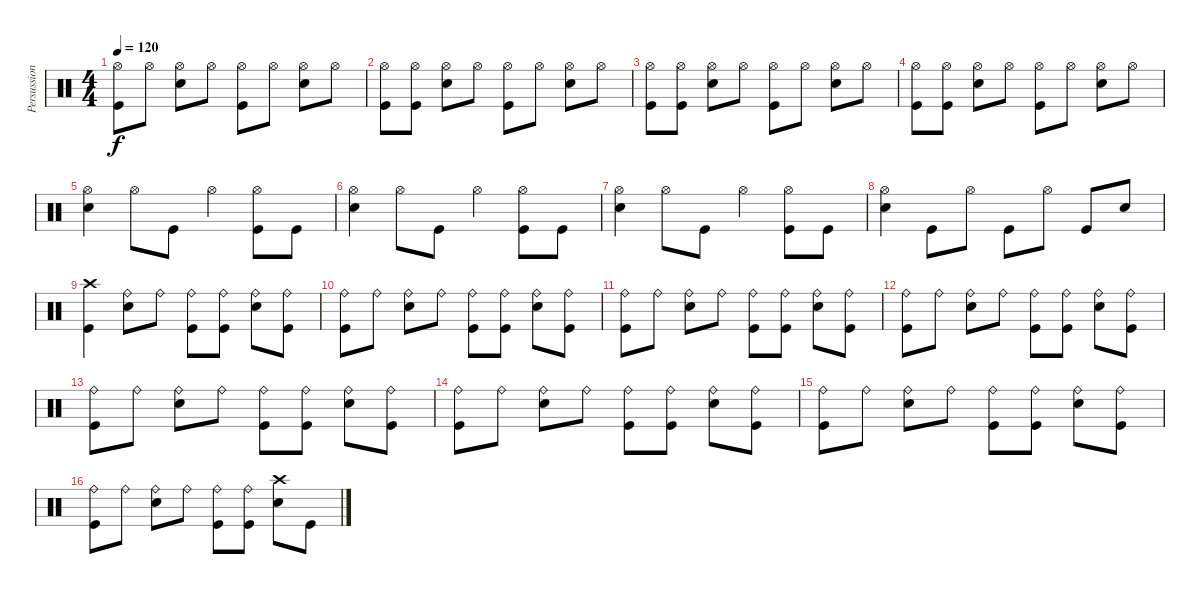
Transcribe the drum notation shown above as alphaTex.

\track ("Persussion" "Persussion") {instrument percussion}
\staff {score}
\articulation defaults
\ts (4 4)
\tempo 120
\clef neutral
\ks c
("Hi-Hat (open)" "Kick (hit)").8{dy f} "Hi-Hat (open)".8 ("Hi-Hat (open)" "Snare (hit) 2").8 "Hi-Hat (open)".8 ("Hi-Hat (open)" "Kick (hit)").8 "Hi-Hat (open)".8 ("Hi-Hat (open)" "Snare (hit) 2").8 "Hi-Hat (open)".8 |
("Hi-Hat (open)" "Kick (hit)").8 ("Hi-Hat (open)" "Kick (hit)").8 ("Hi-Hat (open)" "Snare (hit) 2").8 "Hi-Hat (open)".8 ("Hi-Hat (open)" "Kick (hit)").8 "Hi-Hat (open)".8 ("Hi-Hat (open)" "Snare (hit) 2").8 "Hi-Hat (open)".8 |
("Hi-Hat (open)" "Kick (hit)").8 ("Hi-Hat (open)" "Kick (hit)").8 ("Hi-Hat (open)" "Snare (hit) 2").8 "Hi-Hat (open)".8 ("Hi-Hat (open)" "Kick (hit)").8 "Hi-Hat (open)".8 ("Hi-Hat (open)" "Snare (hit) 2").8 "Hi-Hat (open)".8 |
("Hi-Hat (open)" "Kick (hit)").8 ("Hi-Hat (open)" "Kick (hit)").8 ("Hi-Hat (open)" "Snare (hit) 2").8 "Hi-Hat (open)".8 ("Hi-Hat (open)" "Kick (hit)").8 "Hi-Hat (open)".8 ("Hi-Hat (open)" "Snare (hit) 2").8 "Hi-Hat (open)".8 |
("Hi-Hat (open)" "Snare (hit) 2").4 "Hi-Hat (open)".8 "Kick (hit)".8 "Hi-Hat (open)".4 ("Hi-Hat (open)" "Kick (hit)").8 "Kick (hit)".8 |
("Hi-Hat (open)" "Snare (hit) 2").4 "Hi-Hat (open)".8 "Kick (hit)".8 "Hi-Hat (open)".4 ("Hi-Hat (open)" "Kick (hit)").8 "Kick (hit)".8 |
("Hi-Hat (open)" "Snare (hit) 2").4 "Hi-Hat (open)".8 "Kick (hit)".8 "Hi-Hat (open)".4 ("Hi-Hat (open)" "Kick (hit)").8 "Kick (hit)".8 |
("Hi-Hat (open)" "Snare (hit) 2").4 "Kick (hit)".8 "Hi-Hat (open)".8 "Kick (hit)".8 "Hi-Hat (open)".8 "Kick (hit)".8 "Snare (hit) 2".8 |
("Crash high (hit)" "Kick (hit)").4 ("Ride (bell)" "Snare (hit) 2").8 "Ride (bell)".8 ("Ride (bell)" "Kick (hit)").8 ("Ride (bell)" "Kick (hit)").8 ("Ride (bell)" "Snare (hit) 2").8 ("Ride (bell)" "Kick (hit)").8 |
("Ride (bell)" "Kick (hit)").8 "Ride (bell)".8 ("Ride (bell)" "Snare (hit) 2").8 "Ride (bell)".8 ("Ride (bell)" "Kick (hit)").8 ("Ride (bell)" "Kick (hit)").8 ("Ride (bell)" "Snare (hit) 2").8 ("Ride (bell)" "Kick (hit)").8 |
("Ride (bell)" "Kick (hit)").8 "Ride (bell)".8 ("Ride (bell)" "Snare (hit) 2").8 "Ride (bell)".8 ("Ride (bell)" "Kick (hit)").8 ("Ride (bell)" "Kick (hit)").8 ("Ride (bell)" "Snare (hit) 2").8 ("Ride (bell)" "Kick (hit)").8 |
("Ride (bell)" "Kick (hit)").8 "Ride (bell)".8 ("Ride (bell)" "Snare (hit) 2").8 "Ride (bell)".8 ("Ride (bell)" "Kick (hit)").8 ("Ride (bell)" "Kick (hit)").8 ("Ride (bell)" "Snare (hit) 2").8 ("Ride (bell)" "Kick (hit)").8 |
("Ride (bell)" "Kick (hit)").8 "Ride (bell)".8 ("Ride (bell)" "Snare (hit) 2").8 "Ride (bell)".8 ("Ride (bell)" "Kick (hit)").8 ("Ride (bell)" "Kick (hit)").8 ("Ride (bell)" "Snare (hit) 2").8 ("Ride (bell)" "Kick (hit)").8 |
("Ride (bell)" "Kick (hit)").8 "Ride (bell)".8 ("Ride (bell)" "Snare (hit) 2").8 "Ride (bell)".8 ("Ride (bell)" "Kick (hit)").8 ("Ride (bell)" "Kick (hit)").8 ("Ride (bell)" "Snare (hit) 2").8 ("Ride (bell)" "Kick (hit)").8 |
("Ride (bell)" "Kick (hit)").8 "Ride (bell)".8 ("Ride (bell)" "Snare (hit) 2").8 "Ride (bell)".8 ("Ride (bell)" "Kick (hit)").8 ("Ride (bell)" "Kick (hit)").8 ("Ride (bell)" "Snare (hit) 2").8 ("Ride (bell)" "Kick (hit)").8 |
("Ride (bell)" "Kick (hit)").8 "Ride (bell)".8 ("Ride (bell)" "Snare (hit) 2").8 "Ride (bell)".8 ("Ride (bell)" "Kick (hit)").8 ("Ride (bell)" "Kick (hit)").8 ("Crash high (hit)" "Snare (hit) 2").8 "Kick (hit)".8
